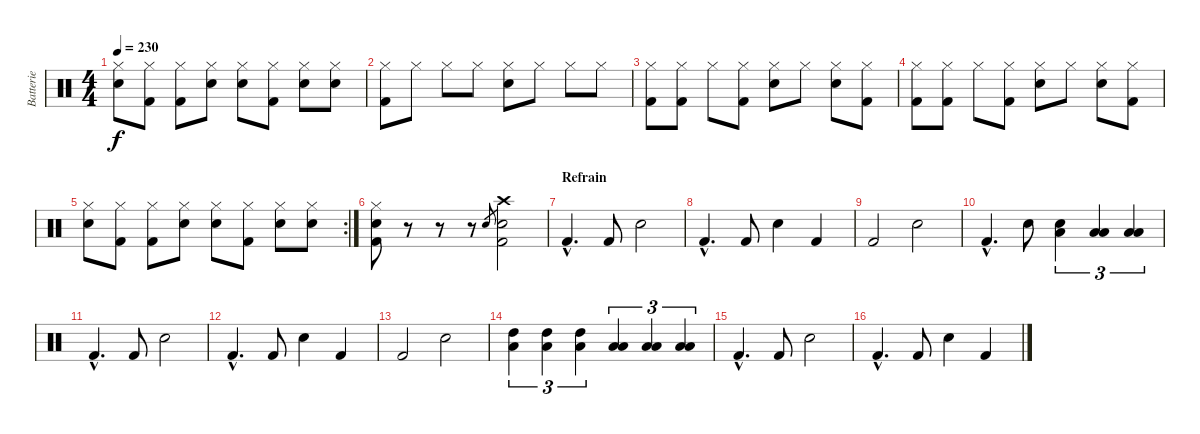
\track ("Batterie" "Batterie") {instrument percussion}
\staff {score}
\articulation defaults
\ts (4 4)
\tempo 230
\clef neutral
\ks c
("Hi-Hat (closed)" "Snare (hit) 2").8{dy f} ("Hi-Hat (closed)" "Kick (hit) 2").8 ("Hi-Hat (closed)" "Kick (hit) 2").8 ("Hi-Hat (closed)" "Snare (hit) 2").8 ("Hi-Hat (closed)" "Snare (hit) 2").8 ("Hi-Hat (closed)" "Kick (hit) 2").8 ("Hi-Hat (closed)" "Snare (hit) 2").8 ("Hi-Hat (closed)" "Snare (hit) 2").8 |
("Hi-Hat (closed)" "Kick (hit) 2").8 "Hi-Hat (closed)".8 "Hi-Hat (closed)".8 "Hi-Hat (closed)".8 ("Hi-Hat (closed)" "Snare (hit) 2").8 "Hi-Hat (closed)".8 "Hi-Hat (closed)".8 "Hi-Hat (closed)".8 |
("Hi-Hat (closed)" "Kick (hit) 2").8 ("Hi-Hat (closed)" "Kick (hit) 2").8 "Hi-Hat (closed)".8 ("Hi-Hat (closed)" "Kick (hit) 2").8 ("Hi-Hat (closed)" "Snare (hit) 2").8 "Hi-Hat (closed)".8 ("Hi-Hat (closed)" "Snare (hit) 2").8 ("Hi-Hat (closed)" "Kick (hit) 2").8 |
("Hi-Hat (closed)" "Kick (hit) 2").8 ("Hi-Hat (closed)" "Kick (hit) 2").8 "Hi-Hat (closed)".8 ("Hi-Hat (closed)" "Kick (hit) 2").8 ("Hi-Hat (closed)" "Snare (hit) 2").8 "Hi-Hat (closed)".8 ("Hi-Hat (closed)" "Snare (hit) 2").8 ("Hi-Hat (closed)" "Kick (hit) 2").8 |
\rc 2
("Hi-Hat (closed)" "Snare (hit) 2").8 ("Hi-Hat (closed)" "Kick (hit) 2").8 ("Hi-Hat (closed)" "Kick (hit) 2").8 ("Hi-Hat (closed)" "Snare (hit) 2").8 ("Hi-Hat (closed)" "Snare (hit) 2").8 ("Hi-Hat (closed)" "Kick (hit) 2").8 ("Hi-Hat (closed)" "Snare (hit) 2").8 ("Hi-Hat (closed)" "Snare (hit) 2").8 |
("Hi-Hat (closed)" "Snare (hit) 2" "Kick (hit) 2").8 r.8 r.8 r.8 "Snare (hit) 2".8{gr} ("Crash high (hit)" "Snare (hit) 2" "Kick (hit) 2").2 |
\section ("" "Refrain")
"Kick (hit) 2"{hac}.4{d} "Kick (hit) 2".8 "Snare (hit) 2".2 |
"Kick (hit) 2"{hac}.4{d} "Kick (hit) 2".8 "Snare (hit) 2".4 "Kick (hit) 2".4 |
"Kick (hit) 2".2 "Snare (hit) 2".2 |
"Kick (hit) 2"{hac}.4{d} "Snare (hit) 2".8 ("Snare (hit) 2" "Low Floor Tom (hit)").4{tu (3 2)} ("Low Tom (hit)" "Low Floor Tom (hit)").4{tu (3 2)} ("Low Floor Tom (hit)" "Low Floor Tom (hit)").4{tu (3 2)} |
"Kick (hit) 2"{hac}.4{d} "Kick (hit) 2".8 "Snare (hit) 2".2 |
"Kick (hit) 2"{hac}.4{d} "Kick (hit) 2".8 "Snare (hit) 2".4 "Kick (hit) 2".4 |
"Kick (hit) 2".2 "Snare (hit) 2".2 |
("High Tom (hit)" "Low Floor Tom (hit)").4{tu (3 2)} ("High Tom (hit)" "Low Floor Tom (hit)").4{tu (3 2)} ("High Tom (hit)" "Low Floor Tom (hit)").4{tu (3 2)} ("Low Tom (hit)" "Low Floor Tom (hit)").4{tu (3 2)} ("Low Tom (hit)" "Low Floor Tom (hit)").4{tu (3 2)} ("Low Tom (hit)" "Low Floor Tom (hit)").4{tu (3 2)} |
"Kick (hit) 2"{hac}.4{d} "Kick (hit) 2".8 "Snare (hit) 2".2 |
"Kick (hit) 2"{hac}.4{d} "Kick (hit) 2".8 "Snare (hit) 2".4 "Kick (hit) 2".4
